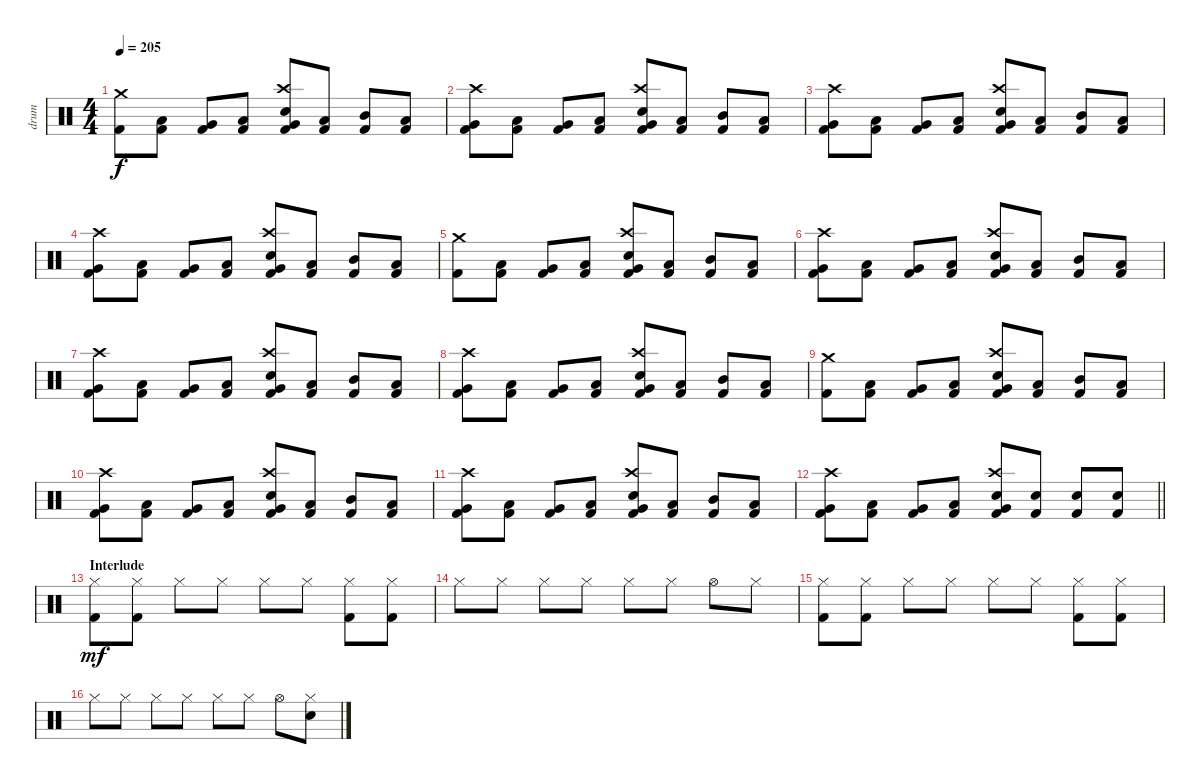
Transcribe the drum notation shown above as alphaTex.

\track ("drum" "drum") {instrument percussion}
\staff {score}
\articulation defaults
\ts (4 4)
\tempo 205
\clef neutral
\ks c
("Crash medium (hit)" "Kick (hit) 2").8{dy f} ("Low Tom (hit)" "Kick (hit) 2").8 ("Very Low Tom (hit)" "Kick (hit) 2").8 ("Low Floor Tom (hit)" "Kick (hit) 2").8 ("Crash high (hit)" "Very Low Tom (hit)" "Electric Snare (hit)" "Kick (hit) 2").8 ("Low Tom (hit)" "Kick (hit) 2").8 ("Mid Tom (hit)" "Kick (hit) 2").8 ("Low Tom (hit)" "Kick (hit) 2").8 |
("Crash high (hit)" "Very Low Tom (hit)" "Kick (hit) 2").8 ("Low Tom (hit)" "Kick (hit) 2").8 ("Very Low Tom (hit)" "Kick (hit) 2").8 ("Low Floor Tom (hit)" "Kick (hit) 2").8 ("Crash high (hit)" "Very Low Tom (hit)" "Electric Snare (hit)" "Kick (hit) 2").8 ("Low Tom (hit)" "Kick (hit) 2").8 ("Mid Tom (hit)" "Kick (hit) 2").8 ("Low Tom (hit)" "Kick (hit) 2").8 |
("Crash high (hit)" "Very Low Tom (hit)" "Kick (hit) 2").8 ("Low Tom (hit)" "Kick (hit) 2").8 ("Very Low Tom (hit)" "Kick (hit) 2").8 ("Low Floor Tom (hit)" "Kick (hit) 2").8 ("Crash high (hit)" "Very Low Tom (hit)" "Electric Snare (hit)" "Kick (hit) 2").8 ("Low Tom (hit)" "Kick (hit) 2").8 ("Mid Tom (hit)" "Kick (hit) 2").8 ("Low Tom (hit)" "Kick (hit) 2").8 |
("Crash high (hit)" "Very Low Tom (hit)" "Kick (hit) 2").8 ("Low Tom (hit)" "Kick (hit) 2").8 ("Very Low Tom (hit)" "Kick (hit) 2").8 ("Low Floor Tom (hit)" "Kick (hit) 2").8 ("Crash high (hit)" "Very Low Tom (hit)" "Electric Snare (hit)" "Kick (hit) 2").8 ("Low Tom (hit)" "Kick (hit) 2").8 ("Mid Tom (hit)" "Kick (hit) 2").8 ("Low Tom (hit)" "Kick (hit) 2").8 |
("Crash medium (hit)" "Kick (hit) 2").8 ("Low Tom (hit)" "Kick (hit) 2").8 ("Very Low Tom (hit)" "Kick (hit) 2").8 ("Low Floor Tom (hit)" "Kick (hit) 2").8 ("Crash high (hit)" "Very Low Tom (hit)" "Electric Snare (hit)" "Kick (hit) 2").8 ("Low Tom (hit)" "Kick (hit) 2").8 ("Mid Tom (hit)" "Kick (hit) 2").8 ("Low Tom (hit)" "Kick (hit) 2").8 |
("Crash high (hit)" "Very Low Tom (hit)" "Kick (hit) 2").8 ("Low Tom (hit)" "Kick (hit) 2").8 ("Very Low Tom (hit)" "Kick (hit) 2").8 ("Low Floor Tom (hit)" "Kick (hit) 2").8 ("Crash high (hit)" "Very Low Tom (hit)" "Electric Snare (hit)" "Kick (hit) 2").8 ("Low Tom (hit)" "Kick (hit) 2").8 ("Mid Tom (hit)" "Kick (hit) 2").8 ("Low Tom (hit)" "Kick (hit) 2").8 |
("Crash high (hit)" "Very Low Tom (hit)" "Kick (hit) 2").8 ("Low Tom (hit)" "Kick (hit) 2").8 ("Very Low Tom (hit)" "Kick (hit) 2").8 ("Low Floor Tom (hit)" "Kick (hit) 2").8 ("Crash high (hit)" "Very Low Tom (hit)" "Electric Snare (hit)" "Kick (hit) 2").8 ("Low Tom (hit)" "Kick (hit) 2").8 ("Mid Tom (hit)" "Kick (hit) 2").8 ("Low Tom (hit)" "Kick (hit) 2").8 |
("Crash high (hit)" "Very Low Tom (hit)" "Kick (hit) 2").8 ("Low Tom (hit)" "Kick (hit) 2").8 ("Very Low Tom (hit)" "Kick (hit) 2").8 ("Low Floor Tom (hit)" "Kick (hit) 2").8 ("Crash high (hit)" "Very Low Tom (hit)" "Electric Snare (hit)" "Kick (hit) 2").8 ("Low Tom (hit)" "Kick (hit) 2").8 ("Mid Tom (hit)" "Kick (hit) 2").8 ("Low Tom (hit)" "Kick (hit) 2").8 |
("Crash medium (hit)" "Kick (hit) 2").8 ("Low Tom (hit)" "Kick (hit) 2").8 ("Very Low Tom (hit)" "Kick (hit) 2").8 ("Low Floor Tom (hit)" "Kick (hit) 2").8 ("Crash high (hit)" "Very Low Tom (hit)" "Electric Snare (hit)" "Kick (hit) 2").8 ("Low Tom (hit)" "Kick (hit) 2").8 ("Mid Tom (hit)" "Kick (hit) 2").8 ("Low Tom (hit)" "Kick (hit) 2").8 |
("Crash high (hit)" "Very Low Tom (hit)" "Kick (hit) 2").8 ("Low Tom (hit)" "Kick (hit) 2").8 ("Very Low Tom (hit)" "Kick (hit) 2").8 ("Low Floor Tom (hit)" "Kick (hit) 2").8 ("Crash high (hit)" "Very Low Tom (hit)" "Electric Snare (hit)" "Kick (hit) 2").8 ("Low Tom (hit)" "Kick (hit) 2").8 ("Mid Tom (hit)" "Kick (hit) 2").8 ("Low Tom (hit)" "Kick (hit) 2").8 |
("Crash high (hit)" "Very Low Tom (hit)" "Kick (hit) 2").8 ("Low Tom (hit)" "Kick (hit) 2").8 ("Very Low Tom (hit)" "Kick (hit) 2").8 ("Low Floor Tom (hit)" "Kick (hit) 2").8 ("Crash high (hit)" "Very Low Tom (hit)" "Electric Snare (hit)" "Kick (hit) 2").8 ("Low Tom (hit)" "Kick (hit) 2").8 ("Mid Tom (hit)" "Kick (hit) 2").8 ("Low Tom (hit)" "Kick (hit) 2").8 |
\barLineRight lightlight
("Crash high (hit)" "Very Low Tom (hit)" "Kick (hit) 2").8 ("Low Tom (hit)" "Kick (hit) 2").8 ("Very Low Tom (hit)" "Kick (hit) 2").8 ("Low Floor Tom (hit)" "Kick (hit) 2").8 ("Crash high (hit)" "Very Low Tom (hit)" "Electric Snare (hit)" "Kick (hit) 2").8 ("Electric Snare (hit)" "Kick (hit) 2").8 ("Electric Snare (hit)" "Kick (hit) 2").8 ("Electric Snare (hit)" "Kick (hit) 2").8 |
\section ("" "Interlude")
("Hi-Hat (closed)" "Kick (hit) 2").8{dy mf} ("Hi-Hat (closed)" "Kick (hit) 2").8 "Hi-Hat (closed)".8 "Hi-Hat (closed)".8 "Hi-Hat (closed)".8 "Hi-Hat (closed)".8 ("Hi-Hat (closed)" "Kick (hit) 2").8 ("Hi-Hat (closed)" "Kick (hit) 2").8 |
"Hi-Hat (closed)".8 "Hi-Hat (closed)".8 "Hi-Hat (closed)".8 "Hi-Hat (closed)".8 "Hi-Hat (closed)".8 "Hi-Hat (closed)".8 "Hi-Hat (open)".8 "Hi-Hat (closed)".8 |
("Hi-Hat (closed)" "Kick (hit) 2").8 ("Hi-Hat (closed)" "Kick (hit) 2").8 "Hi-Hat (closed)".8 "Hi-Hat (closed)".8 "Hi-Hat (closed)".8 "Hi-Hat (closed)".8 ("Hi-Hat (closed)" "Kick (hit) 2").8 ("Hi-Hat (closed)" "Kick (hit) 2").8 |
"Hi-Hat (closed)".8 "Hi-Hat (closed)".8 "Hi-Hat (closed)".8 "Hi-Hat (closed)".8 "Hi-Hat (closed)".8 "Hi-Hat (closed)".8 "Hi-Hat (open)".8 ("Hi-Hat (closed)" "Electric Snare (hit)").8
